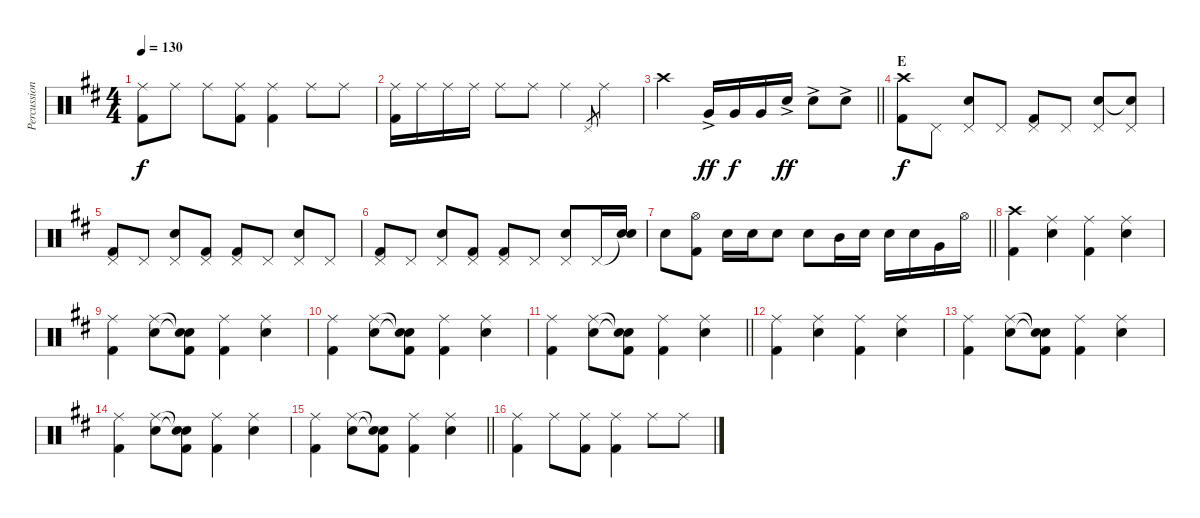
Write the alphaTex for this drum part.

\track ("Percussion" "Percussion") {instrument percussion}
\staff {score}
\articulation defaults
\ts (4 4)
\tempo 130
\clef neutral
\ks d
("Ride (middle)" "Kick (hit) 2").8{dy f} "Ride (middle)".8 "Ride (middle)".8 ("Ride (middle)" "Kick (hit) 2").8 ("Ride (middle)" "Kick (hit) 2").4 "Ride (middle)".8 "Ride (middle)".8 |
("Ride (middle)" "Kick (hit) 2").16 "Ride (middle)".16 "Ride (middle)".16 "Ride (middle)".16 "Ride (middle)".8 "Ride (middle)".8 "Ride (middle)".4 "Pedal Hi-Hat (hit)".8{gr} "Ride (middle)".4 |
\barLineRight lightlight "Crash high (hit)".2 "Very Low Tom (hit)"{ac}.16{dy ff} "Very Low Tom (hit)".16{dy f} "Very Low Tom (hit)".16 "Electric Snare (hit)"{ac}.16{dy ff} "Electric Snare (hit)"{ac}.8 "Electric Snare (hit)"{ac}.8
|
\section ("" "E")
("Kick (hit) 2" "Crash high (hit)").8{dy f} "Pedal Hi-Hat (hit)".8 ("Pedal Hi-Hat (hit)" "Electric Snare (hit)").8 "Pedal Hi-Hat (hit)".8 ("Pedal Hi-Hat (hit)" "Kick (hit) 2").8 "Pedal Hi-Hat (hit)".8 ("Pedal Hi-Hat (hit)" "Electric Snare (hit)").8 ("Pedal Hi-Hat (hit)" "Snare (hit)"{t}).8 |
("Kick (hit) 2" "Pedal Hi-Hat (hit)").8 "Pedal Hi-Hat (hit)".8 ("Pedal Hi-Hat (hit)" "Electric Snare (hit)").8 ("Pedal Hi-Hat (hit)" "Kick (hit) 2").8 ("Pedal Hi-Hat (hit)" "Kick (hit) 2").8 "Pedal Hi-Hat (hit)".8 ("Pedal Hi-Hat (hit)" "Electric Snare (hit)").8 "Pedal Hi-Hat (hit)".8 |
("Kick (hit) 2" "Pedal Hi-Hat (hit)").8 "Pedal Hi-Hat (hit)".8 ("Pedal Hi-Hat (hit)" "Electric Snare (hit)").8 ("Pedal Hi-Hat (hit)" "Kick (hit) 2").8 ("Pedal Hi-Hat (hit)" "Kick (hit) 2").8 "Pedal Hi-Hat (hit)".8 ("Pedal Hi-Hat (hit)" "Electric Snare (hit)").8 "Pedal Hi-Hat (hit)".16 ("Snare (hit)"{t} "Electric Snare (hit)").16 |
\barLineRight lightlight "Electric Snare (hit)".8
("Hi-Hat (open)" "Kick (hit) 2").8 "Electric Snare (hit)".16 "Electric Snare (hit)".16 "Electric Snare (hit)".8 "Electric Snare (hit)".8 "Mid Tom (hit)".16 "Electric Snare (hit)".16 "Electric Snare (hit)".16 "Electric Snare (hit)".16 "Very Low Tom (hit)".16 "Hi-Hat (open)".16 |
("Crash high (hit)" "Kick (hit) 2").4 ("Ride (middle)" "Electric Snare (hit)").4 ("Ride (middle)" "Kick (hit) 2").4 ("Ride (middle)" "Electric Snare (hit)").4 |
("Ride (middle)" "Kick (hit) 2").4 ("Ride (middle)" "Electric Snare (hit)").8 ("Snare (hit)"{t} "Snare (hit)"{t} "Kick (hit) 2").8 ("Ride (middle)" "Kick (hit) 2").4 ("Ride (middle)" "Electric Snare (hit)").4 |
("Ride (middle)" "Kick (hit) 2").4 ("Ride (middle)" "Electric Snare (hit)").8 ("Snare (hit)"{t} "Snare (hit)"{t} "Kick (hit) 2").8 ("Ride (middle)" "Kick (hit) 2").4 ("Ride (middle)" "Electric Snare (hit)").4 |
\barLineRight lightlight
("Ride (middle)" "Kick (hit) 2").4 ("Ride (middle)" "Electric Snare (hit)").8 ("Snare (hit)"{t} "Snare (hit)"{t} "Kick (hit) 2").8 ("Ride (middle)" "Kick (hit) 2").4 ("Ride (middle)" "Electric Snare (hit)").4 |
("Ride (middle)" "Kick (hit) 2").4 ("Ride (middle)" "Electric Snare (hit)").4 ("Ride (middle)" "Kick (hit) 2").4 ("Ride (middle)" "Electric Snare (hit)").4 |
("Ride (middle)" "Kick (hit) 2").4 ("Ride (middle)" "Electric Snare (hit)").8 ("Snare (hit)"{t} "Snare (hit)"{t} "Kick (hit) 2").8 ("Ride (middle)" "Kick (hit) 2").4 ("Ride (middle)" "Electric Snare (hit)").4 |
("Ride (middle)" "Kick (hit) 2").4 ("Ride (middle)" "Electric Snare (hit)").8 ("Snare (hit)"{t} "Snare (hit)"{t} "Kick (hit) 2").8 ("Ride (middle)" "Kick (hit) 2").4 ("Ride (middle)" "Electric Snare (hit)").4 |
\barLineRight lightlight
("Ride (middle)" "Kick (hit) 2").4 ("Ride (middle)" "Electric Snare (hit)").8 ("Snare (hit)"{t} "Snare (hit)"{t} "Kick (hit) 2").8 ("Ride (middle)" "Kick (hit) 2").4 ("Ride (middle)" "Electric Snare (hit)").4 |
("Ride (middle)" "Kick (hit) 2").4 "Ride (middle)".8 ("Ride (middle)" "Kick (hit) 2").8 ("Ride (middle)" "Kick (hit) 2").4 "Ride (middle)".8 "Ride (middle)".8
